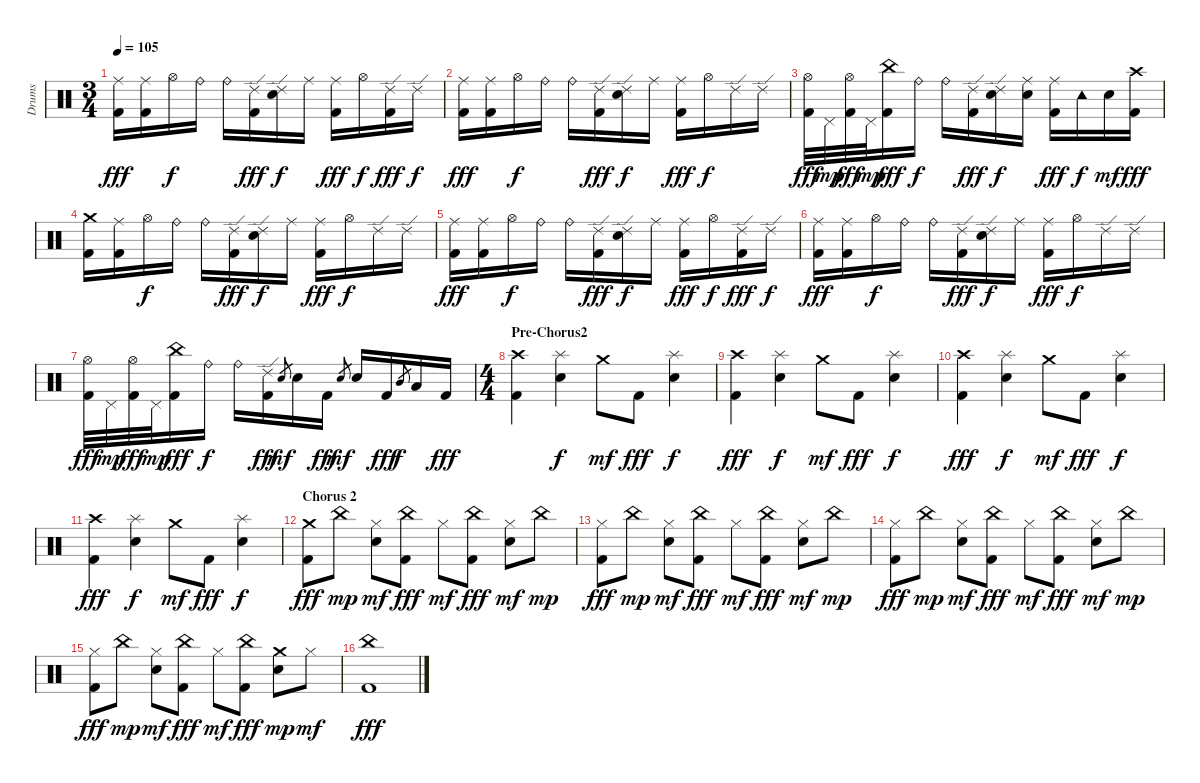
\track ("Drums" "Drums") {instrument percussion}
\staff {score}
\articulation defaults
\ts (3 4)
\tempo 105
\clef neutral
\ks c
("Ride (middle)" "Kick (hit) 2").16{dy fff} ("Ride (middle)" "Kick (hit) 2").16 "Hi-Hat (open)".16{dy f} "Ride (bell)".16 "Ride (bell)".16 ("Ride (edge) 2" "Kick (hit) 2").16{dy fff} ("Ride (edge) 2" "Electric Snare (hit)").16{dy f} "Ride (middle)".16 ("Ride (middle)" "Kick (hit) 2").16{dy fff} "Hi-Hat (open)".16{dy f} ("Ride (edge) 2" "Kick (hit) 2").16{dy fff} "Ride (edge) 2".16{dy f} |
("Ride (middle)" "Kick (hit) 2").16{dy fff} ("Ride (middle)" "Kick (hit) 2").16 "Hi-Hat (open)".16{dy f} "Ride (bell)".16 "Ride (bell)".16 ("Ride (edge) 2" "Kick (hit) 2").16{dy fff} ("Ride (edge) 2" "Electric Snare (hit)").16{dy f} "Ride (middle)".16 ("Ride (middle)" "Kick (hit) 2").16{dy fff} "Hi-Hat (open)".16{dy f} "Ride (edge) 2".16 "Ride (edge) 2".16 |
("Hi-Hat (open)" "Kick (hit) 2").32{dy fff} "Pedal Hi-Hat (hit)".32{dy mp} ("Hi-Hat (open)" "Kick (hit) 2").32{dy fff} "Pedal Hi-Hat (hit)".32{dy mp} ("China (hit)" "Kick (hit) 2").16{dy fff} "Ride (bell)".16{dy f} "Ride (bell)".16 ("Ride (edge) 2" "Kick (hit) 2").16{dy fff} ("Ride (edge) 2" "Electric Snare (hit)").16{dy f} ("Ride (middle)" "Electric Snare (hit)").16 ("Ride (middle)" "Kick (hit) 2").16{dy fff} "Tambourine (hit)".16{dy f} "Electric Snare (hit)".16{dy mf} ("Crash high (hit)" "Kick (hit) 2").16{dy fff} |
("Crash medium (hit)" "Kick (hit) 2").16 ("Ride (middle)" "Kick (hit) 2").16 "Hi-Hat (open)".16{dy f} "Ride (bell)".16 "Ride (bell)".16 ("Ride (edge) 2" "Kick (hit) 2").16{dy fff} ("Ride (edge) 2" "Electric Snare (hit)").16{dy f} "Ride (middle)".16 ("Ride (middle)" "Kick (hit) 2").16{dy fff} "Hi-Hat (open)".16{dy f} "Ride (edge) 2".16 "Ride (edge) 2".16 |
("Ride (middle)" "Kick (hit) 2").16{dy fff} ("Ride (middle)" "Kick (hit) 2").16 "Hi-Hat (open)".16{dy f} "Ride (bell)".16 "Ride (bell)".16 ("Ride (edge) 2" "Kick (hit) 2").16{dy fff} ("Ride (edge) 2" "Electric Snare (hit)").16{dy f} "Ride (middle)".16 ("Ride (middle)" "Kick (hit) 2").16{dy fff} "Hi-Hat (open)".16{dy f} ("Ride (edge) 2" "Kick (hit) 2").16{dy fff} "Ride (edge) 2".16{dy f} |
("Ride (middle)" "Kick (hit) 2").16{dy fff} ("Ride (middle)" "Kick (hit) 2").16 "Hi-Hat (open)".16{dy f} "Ride (bell)".16 "Ride (bell)".16 ("Ride (edge) 2" "Kick (hit) 2").16{dy fff} ("Ride (edge) 2" "Electric Snare (hit)").16{dy f} "Ride (middle)".16 ("Ride (middle)" "Kick (hit) 2").16{dy fff} "Hi-Hat (open)".16{dy f} "Ride (edge) 2".16 "Ride (edge) 2".16 |
("Hi-Hat (open)" "Kick (hit) 2").32{dy fff} "Pedal Hi-Hat (hit)".32{dy mp} ("Hi-Hat (open)" "Kick (hit) 2").32{dy fff} "Pedal Hi-Hat (hit)".32{dy mp} ("China (hit)" "Kick (hit) 2").16{dy fff} "Ride (bell)".16{dy f} "Ride (bell)".16 ("Ride (edge) 2" "Kick (hit) 2").16{dy fff} "Electric Snare (hit)".8{gr dy mf} "Electric Snare (hit)".16 "Kick (hit) 2".16{dy fff} "Electric Snare (hit)".8{gr dy mf} "Electric Snare (hit)".16 "Kick (hit) 2".16{dy fff} "Mid Tom (hit)".8{gr dy f} "Low Tom (hit)".16 "Kick (hit) 2".16{dy fff} |
\ts (4 4)
\section ("" "Pre-Chorus2")
("Crash high (hit)" "Kick (hit) 2").4 ("Splash (hit)" "Electric Snare (hit)").4{dy f} "Crash medium (hit)".8{dy mf} "Kick (hit) 2".8{dy fff} ("Splash (hit)" "Electric Snare (hit)").4{dy f} |
("Crash high (hit)" "Kick (hit) 2").4{dy fff} ("Splash (hit)" "Electric Snare (hit)").4{dy f} "Crash medium (hit)".8{dy mf} "Kick (hit) 2".8{dy fff} ("Splash (hit)" "Electric Snare (hit)").4{dy f} |
("Crash high (hit)" "Kick (hit) 2").4{dy fff} ("Splash (hit)" "Electric Snare (hit)").4{dy f} "Crash medium (hit)".8{dy mf} "Kick (hit) 2".8{dy fff} ("Splash (hit)" "Electric Snare (hit)").4{dy f} |
("Crash high (hit)" "Kick (hit) 2").4{dy fff} ("Splash (hit)" "Electric Snare (hit)").4{dy f} "Crash medium (hit)".8{dy mf} "Kick (hit) 2".8{dy fff} ("Splash (hit)" "Electric Snare (hit)").4{dy f} |
\section ("" "Chorus 2")
("Crash medium (hit)" "Kick (hit) 2").8{dy fff} "China (hit)".8{dy mp} ("Hi-Hat (closed)" "Electric Snare (hit)").8{dy mf} ("China (hit)" "Kick (hit) 2").8{dy fff} "Hi-Hat (closed)".8{dy mf} ("China (hit)" "Kick (hit) 2").8{dy fff} ("Hi-Hat (closed)" "Electric Snare (hit)").8{dy mf} "China (hit)".8{dy mp} |
("Hi-Hat (closed)" "Kick (hit) 2").8{dy fff} "China (hit)".8{dy mp} ("Hi-Hat (closed)" "Electric Snare (hit)").8{dy mf} ("China (hit)" "Kick (hit) 2").8{dy fff} "Hi-Hat (closed)".8{dy mf} ("China (hit)" "Kick (hit) 2").8{dy fff} ("Hi-Hat (closed)" "Electric Snare (hit)").8{dy mf} "China (hit)".8{dy mp} |
("Hi-Hat (closed)" "Kick (hit) 2").8{dy fff} "China (hit)".8{dy mp} ("Hi-Hat (closed)" "Electric Snare (hit)").8{dy mf} ("China (hit)" "Kick (hit) 2").8{dy fff} "Hi-Hat (closed)".8{dy mf} ("China (hit)" "Kick (hit) 2").8{dy fff} ("Hi-Hat (closed)" "Electric Snare (hit)").8{dy mf} "China (hit)".8{dy mp} |
("Hi-Hat (closed)" "Kick (hit) 2").8{dy fff} "China (hit)".8{dy mp} ("Hi-Hat (closed)" "Electric Snare (hit)").8{dy mf} ("China (hit)" "Kick (hit) 2").8{dy fff} "Hi-Hat (closed)".8{dy mf} ("China (hit)" "Kick (hit) 2").8{dy fff} ("Crash medium (hit)" "Electric Snare (hit)").8{dy mp} "Hi-Hat (closed)".8{dy mf} |
("China (hit)" "Kick (hit) 2").1{dy fff}
